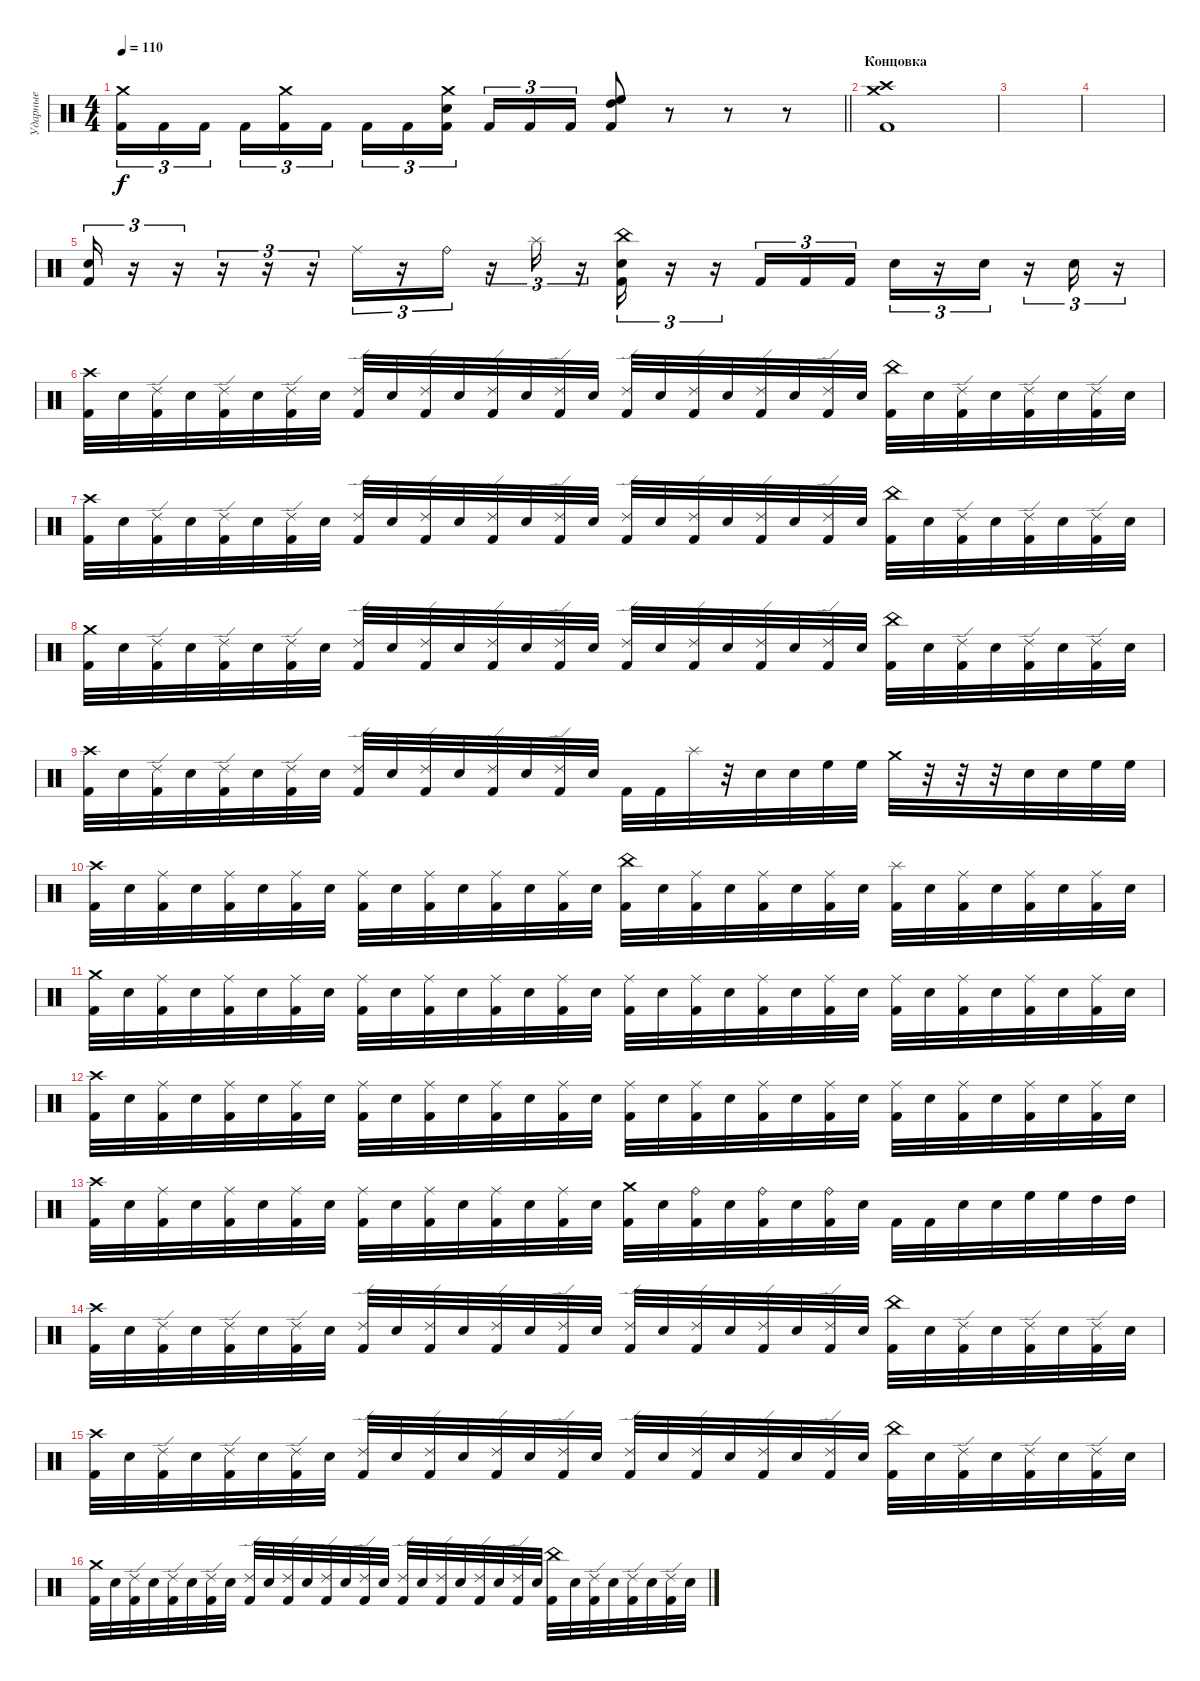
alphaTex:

\track ("Ударные" "Ударные") {instrument percussion}
\staff {score}
\articulation defaults
\ts (4 4)
\tempo 110
\clef neutral
\barLineRight lightlight
\ks c
("Crash medium (hit)" "Kick (hit) 2").16{tu (3 2) dy f} "Kick (hit) 2".16{tu (3 2)} "Kick (hit) 2".16{tu (3 2) beam splitsecondary} "Kick (hit) 2".16{tu (3 2)} ("Crash medium (hit)" "Kick (hit) 2").16{tu (3 2)} "Kick (hit) 2".16{tu (3 2)} "Kick (hit) 2".16{tu (3 2)} "Kick (hit) 2".16{tu (3 2)} ("Crash medium (hit)" "Electric Snare (hit)" "Kick (hit) 2").16{tu (3 2) beam splitsecondary} "Kick (hit) 2".16{tu (3 2)} "Kick (hit) 2".16{tu (3 2)} "Kick (hit) 2".16{tu (3 2)} ("High Floor Tom (hit)" "High Tom (hit)" "Kick (hit) 2").8 r.8 r.8 r.8 |
\section ("" "Концовка")
("Crash medium (hit)" "Crash high (hit)" "Kick (hit) 2").1 |
|
|
("Electric Snare (hit)" "Kick (hit) 2").16{tu (3 2)} r.16{tu (3 2)} r.16{tu (3 2)} r.16{tu (3 2)} r.16{tu (3 2)} r.16{tu (3 2)} "Ride (middle)".16{tu (3 2)} r.16{tu (3 2)} "Ride (bell)".16{tu (3 2)} r.16{tu (3 2)} "Splash (hit)".16{tu (3 2)} r.16{tu (3 2)} ("China (hit)" "Electric Snare (hit)" "Kick (hit) 2").16{tu (3 2)} r.16{tu (3 2)} r.16{tu (3 2)} "Kick (hit) 2".16{tu (3 2)} "Kick (hit) 2".16{tu (3 2)} "Kick (hit) 2".16{tu (3 2)} "Electric Snare (hit)".16{tu (3 2)} r.16{tu (3 2)} "Electric Snare (hit)".16{tu (3 2)} r.16{tu (3 2)} "Electric Snare (hit)".16{tu (3 2)} r.16{tu (3 2)} |
("Crash high (hit)" "Kick (hit) 2").32 "Electric Snare (hit)".32 ("Ride (edge) 2" "Kick (hit) 2").32 "Electric Snare (hit)".32 ("Ride (edge) 2" "Kick (hit) 2").32 "Electric Snare (hit)".32 ("Ride (edge) 2" "Kick (hit) 2").32 "Electric Snare (hit)".32 ("Ride (edge) 2" "Kick (hit) 2").32 "Electric Snare (hit)".32 ("Ride (edge) 2" "Kick (hit) 2").32 "Electric Snare (hit)".32 ("Ride (edge) 2" "Kick (hit) 2").32 "Electric Snare (hit)".32 ("Ride (edge) 2" "Kick (hit) 2").32 "Electric Snare (hit)".32 ("Ride (edge) 2" "Kick (hit) 2").32 "Electric Snare (hit)".32 ("Ride (edge) 2" "Kick (hit) 2").32 "Electric Snare (hit)".32 ("Ride (edge) 2" "Kick (hit) 2").32 "Electric Snare (hit)".32 ("Ride (edge) 2" "Kick (hit) 2").32 "Electric Snare (hit)".32 ("China (hit)" "Kick (hit) 2").32 "Electric Snare (hit)".32 ("Ride (edge) 2" "Kick (hit) 2").32 "Electric Snare (hit)".32 ("Ride (edge) 2" "Kick (hit) 2").32 "Electric Snare (hit)".32 ("Ride (edge) 2" "Kick (hit) 2").32 "Electric Snare (hit)".32 |
("Crash high (hit)" "Kick (hit) 2").32 "Electric Snare (hit)".32 ("Ride (edge) 2" "Kick (hit) 2").32 "Electric Snare (hit)".32 ("Ride (edge) 2" "Kick (hit) 2").32 "Electric Snare (hit)".32 ("Ride (edge) 2" "Kick (hit) 2").32 "Electric Snare (hit)".32 ("Ride (edge) 2" "Kick (hit) 2").32 "Electric Snare (hit)".32 ("Ride (edge) 2" "Kick (hit) 2").32 "Electric Snare (hit)".32 ("Ride (edge) 2" "Kick (hit) 2").32 "Electric Snare (hit)".32 ("Ride (edge) 2" "Kick (hit) 2").32 "Electric Snare (hit)".32 ("Ride (edge) 2" "Kick (hit) 2").32 "Electric Snare (hit)".32 ("Ride (edge) 2" "Kick (hit) 2").32 "Electric Snare (hit)".32 ("Ride (edge) 2" "Kick (hit) 2").32 "Electric Snare (hit)".32 ("Ride (edge) 2" "Kick (hit) 2").32 "Electric Snare (hit)".32 ("China (hit)" "Kick (hit) 2").32 "Electric Snare (hit)".32 ("Ride (edge) 2" "Kick (hit) 2").32 "Electric Snare (hit)".32 ("Ride (edge) 2" "Kick (hit) 2").32 "Electric Snare (hit)".32 ("Ride (edge) 2" "Kick (hit) 2").32 "Electric Snare (hit)".32 |
("Crash medium (hit)" "Kick (hit) 2").32 "Electric Snare (hit)".32 ("Ride (edge) 2" "Kick (hit) 2").32 "Electric Snare (hit)".32 ("Ride (edge) 2" "Kick (hit) 2").32 "Electric Snare (hit)".32 ("Ride (edge) 2" "Kick (hit) 2").32 "Electric Snare (hit)".32 ("Ride (edge) 2" "Kick (hit) 2").32 "Electric Snare (hit)".32 ("Ride (edge) 2" "Kick (hit) 2").32 "Electric Snare (hit)".32 ("Ride (edge) 2" "Kick (hit) 2").32 "Electric Snare (hit)".32 ("Ride (edge) 2" "Kick (hit) 2").32 "Electric Snare (hit)".32 ("Ride (edge) 2" "Kick (hit) 2").32 "Electric Snare (hit)".32 ("Ride (edge) 2" "Kick (hit) 2").32 "Electric Snare (hit)".32 ("Ride (edge) 2" "Kick (hit) 2").32 "Electric Snare (hit)".32 ("Ride (edge) 2" "Kick (hit) 2").32 "Electric Snare (hit)".32 ("China (hit)" "Kick (hit) 2").32 "Electric Snare (hit)".32 ("Ride (edge) 2" "Kick (hit) 2").32 "Electric Snare (hit)".32 ("Ride (edge) 2" "Kick (hit) 2").32 "Electric Snare (hit)".32 ("Ride (edge) 2" "Kick (hit) 2").32 "Electric Snare (hit)".32 |
("Crash high (hit)" "Kick (hit) 2").32 "Electric Snare (hit)".32 ("Ride (edge) 2" "Kick (hit) 2").32 "Electric Snare (hit)".32 ("Ride (edge) 2" "Kick (hit) 2").32 "Electric Snare (hit)".32 ("Ride (edge) 2" "Kick (hit) 2").32 "Electric Snare (hit)".32 ("Ride (edge) 2" "Kick (hit) 2").32 "Electric Snare (hit)".32 ("Ride (edge) 2" "Kick (hit) 2").32 "Electric Snare (hit)".32 ("Ride (edge) 2" "Kick (hit) 2").32 "Electric Snare (hit)".32 ("Ride (edge) 2" "Kick (hit) 2").32 "Electric Snare (hit)".32 "Kick (hit) 2".32 "Kick (hit) 2".32 "Splash (hit)".32 r.32 "Electric Snare (hit)".32 "Electric Snare (hit)".32 "High Floor Tom (hit)".32 "High Floor Tom (hit)".32 "Crash medium (hit)".32 r.32 r.32 r.32 "Electric Snare (hit)".32 "Electric Snare (hit)".32 "High Floor Tom (hit)".32 "High Floor Tom (hit)".32 |
("Crash high (hit)" "Kick (hit) 2").32 "Electric Snare (hit)".32 ("Ride (middle)" "Kick (hit) 2").32 "Electric Snare (hit)".32 ("Ride (middle)" "Kick (hit) 2").32 "Electric Snare (hit)".32 ("Ride (middle)" "Kick (hit) 2").32 "Electric Snare (hit)".32 ("Ride (middle)" "Kick (hit) 2").32 "Electric Snare (hit)".32 ("Ride (middle)" "Kick (hit) 2").32 "Electric Snare (hit)".32 ("Ride (middle)" "Kick (hit) 2").32 "Electric Snare (hit)".32 ("Ride (middle)" "Kick (hit) 2").32 "Electric Snare (hit)".32 ("China (hit)" "Kick (hit) 2").32 "Electric Snare (hit)".32 ("Ride (middle)" "Kick (hit) 2").32 "Electric Snare (hit)".32 ("Ride (middle)" "Kick (hit) 2").32 "Electric Snare (hit)".32 ("Ride (middle)" "Kick (hit) 2").32 "Electric Snare (hit)".32 ("Splash (hit)" "Kick (hit) 2").32 "Electric Snare (hit)".32 ("Ride (middle)" "Kick (hit) 2").32 "Electric Snare (hit)".32 ("Ride (middle)" "Kick (hit) 2").32 "Electric Snare (hit)".32 ("Ride (middle)" "Kick (hit) 2").32 "Electric Snare (hit)".32 |
("Crash medium (hit)" "Kick (hit) 2").32 "Electric Snare (hit)".32 ("Ride (middle)" "Kick (hit) 2").32 "Electric Snare (hit)".32 ("Ride (middle)" "Kick (hit) 2").32 "Electric Snare (hit)".32 ("Ride (middle)" "Kick (hit) 2").32 "Electric Snare (hit)".32 ("Ride (middle)" "Kick (hit) 2").32 "Electric Snare (hit)".32 ("Ride (middle)" "Kick (hit) 2").32 "Electric Snare (hit)".32 ("Ride (middle)" "Kick (hit) 2").32 "Electric Snare (hit)".32 ("Ride (middle)" "Kick (hit) 2").32 "Electric Snare (hit)".32 ("Ride (middle)" "Kick (hit) 2").32 "Electric Snare (hit)".32 ("Ride (middle)" "Kick (hit) 2").32 "Electric Snare (hit)".32 ("Ride (middle)" "Kick (hit) 2").32 "Electric Snare (hit)".32 ("Ride (middle)" "Kick (hit) 2").32 "Electric Snare (hit)".32 ("Ride (middle)" "Kick (hit) 2").32 "Electric Snare (hit)".32 ("Ride (middle)" "Kick (hit) 2").32 "Electric Snare (hit)".32 ("Ride (middle)" "Kick (hit) 2").32 "Electric Snare (hit)".32 ("Ride (middle)" "Kick (hit) 2").32 "Electric Snare (hit)".32 |
("Crash high (hit)" "Kick (hit) 2").32 "Electric Snare (hit)".32 ("Ride (middle)" "Kick (hit) 2").32 "Electric Snare (hit)".32 ("Ride (middle)" "Kick (hit) 2").32 "Electric Snare (hit)".32 ("Ride (middle)" "Kick (hit) 2").32 "Electric Snare (hit)".32 ("Ride (middle)" "Kick (hit) 2").32 "Electric Snare (hit)".32 ("Ride (middle)" "Kick (hit) 2").32 "Electric Snare (hit)".32 ("Ride (middle)" "Kick (hit) 2").32 "Electric Snare (hit)".32 ("Ride (middle)" "Kick (hit) 2").32 "Electric Snare (hit)".32 ("Ride (middle)" "Kick (hit) 2").32 "Electric Snare (hit)".32 ("Ride (middle)" "Kick (hit) 2").32 "Electric Snare (hit)".32 ("Ride (middle)" "Kick (hit) 2").32 "Electric Snare (hit)".32 ("Ride (middle)" "Kick (hit) 2").32 "Electric Snare (hit)".32 ("Ride (middle)" "Kick (hit) 2").32 "Electric Snare (hit)".32 ("Ride (middle)" "Kick (hit) 2").32 "Electric Snare (hit)".32 ("Ride (middle)" "Kick (hit) 2").32 "Electric Snare (hit)".32 ("Ride (middle)" "Kick (hit) 2").32 "Electric Snare (hit)".32 |
("Crash high (hit)" "Kick (hit) 2").32 "Electric Snare (hit)".32 ("Ride (middle)" "Kick (hit) 2").32 "Electric Snare (hit)".32 ("Ride (middle)" "Kick (hit) 2").32 "Electric Snare (hit)".32 ("Ride (middle)" "Kick (hit) 2").32 "Electric Snare (hit)".32 ("Ride (middle)" "Kick (hit) 2").32 "Electric Snare (hit)".32 ("Ride (middle)" "Kick (hit) 2").32 "Electric Snare (hit)".32 ("Ride (middle)" "Kick (hit) 2").32 "Electric Snare (hit)".32 ("Ride (middle)" "Kick (hit) 2").32 "Electric Snare (hit)".32 ("Crash medium (hit)" "Kick (hit) 2").32 "Electric Snare (hit)".32 ("Ride (bell)" "Kick (hit) 2").32 "Electric Snare (hit)".32 ("Ride (bell)" "Kick (hit) 2").32 "Electric Snare (hit)".32 ("Ride (bell)" "Kick (hit) 2").32 "Electric Snare (hit)".32 "Kick (hit) 2".32 "Kick (hit) 2".32 "Electric Snare (hit)".32 "Electric Snare (hit)".32 "High Floor Tom (hit)".32 "High Floor Tom (hit)".32 "High Tom (hit)".32 "High Tom (hit)".32 |
("Crash high (hit)" "Kick (hit) 2").32 "Electric Snare (hit)".32 ("Ride (edge) 2" "Kick (hit) 2").32 "Electric Snare (hit)".32 ("Ride (edge) 2" "Kick (hit) 2").32 "Electric Snare (hit)".32 ("Ride (edge) 2" "Kick (hit) 2").32 "Electric Snare (hit)".32 ("Ride (edge) 2" "Kick (hit) 2").32 "Electric Snare (hit)".32 ("Ride (edge) 2" "Kick (hit) 2").32 "Electric Snare (hit)".32 ("Ride (edge) 2" "Kick (hit) 2").32 "Electric Snare (hit)".32 ("Ride (edge) 2" "Kick (hit) 2").32 "Electric Snare (hit)".32 ("Ride (edge) 2" "Kick (hit) 2").32 "Electric Snare (hit)".32 ("Ride (edge) 2" "Kick (hit) 2").32 "Electric Snare (hit)".32 ("Ride (edge) 2" "Kick (hit) 2").32 "Electric Snare (hit)".32 ("Ride (edge) 2" "Kick (hit) 2").32 "Electric Snare (hit)".32 ("China (hit)" "Kick (hit) 2").32 "Electric Snare (hit)".32 ("Ride (edge) 2" "Kick (hit) 2").32 "Electric Snare (hit)".32 ("Ride (edge) 2" "Kick (hit) 2").32 "Electric Snare (hit)".32 ("Ride (edge) 2" "Kick (hit) 2").32 "Electric Snare (hit)".32 |
("Crash high (hit)" "Kick (hit) 2").32 "Electric Snare (hit)".32 ("Ride (edge) 2" "Kick (hit) 2").32 "Electric Snare (hit)".32 ("Ride (edge) 2" "Kick (hit) 2").32 "Electric Snare (hit)".32 ("Ride (edge) 2" "Kick (hit) 2").32 "Electric Snare (hit)".32 ("Ride (edge) 2" "Kick (hit) 2").32 "Electric Snare (hit)".32 ("Ride (edge) 2" "Kick (hit) 2").32 "Electric Snare (hit)".32 ("Ride (edge) 2" "Kick (hit) 2").32 "Electric Snare (hit)".32 ("Ride (edge) 2" "Kick (hit) 2").32 "Electric Snare (hit)".32 ("Ride (edge) 2" "Kick (hit) 2").32 "Electric Snare (hit)".32 ("Ride (edge) 2" "Kick (hit) 2").32 "Electric Snare (hit)".32 ("Ride (edge) 2" "Kick (hit) 2").32 "Electric Snare (hit)".32 ("Ride (edge) 2" "Kick (hit) 2").32 "Electric Snare (hit)".32 ("China (hit)" "Kick (hit) 2").32 "Electric Snare (hit)".32 ("Ride (edge) 2" "Kick (hit) 2").32 "Electric Snare (hit)".32 ("Ride (edge) 2" "Kick (hit) 2").32 "Electric Snare (hit)".32 ("Ride (edge) 2" "Kick (hit) 2").32 "Electric Snare (hit)".32 |
("Crash medium (hit)" "Kick (hit) 2").32 "Electric Snare (hit)".32 ("Ride (edge) 2" "Kick (hit) 2").32 "Electric Snare (hit)".32 ("Ride (edge) 2" "Kick (hit) 2").32 "Electric Snare (hit)".32 ("Ride (edge) 2" "Kick (hit) 2").32 "Electric Snare (hit)".32 ("Ride (edge) 2" "Kick (hit) 2").32 "Electric Snare (hit)".32 ("Ride (edge) 2" "Kick (hit) 2").32 "Electric Snare (hit)".32 ("Ride (edge) 2" "Kick (hit) 2").32 "Electric Snare (hit)".32 ("Ride (edge) 2" "Kick (hit) 2").32 "Electric Snare (hit)".32 ("Ride (edge) 2" "Kick (hit) 2").32 "Electric Snare (hit)".32 ("Ride (edge) 2" "Kick (hit) 2").32 "Electric Snare (hit)".32 ("Ride (edge) 2" "Kick (hit) 2").32 "Electric Snare (hit)".32 ("Ride (edge) 2" "Kick (hit) 2").32 "Electric Snare (hit)".32 ("China (hit)" "Kick (hit) 2").32 "Electric Snare (hit)".32 ("Ride (edge) 2" "Kick (hit) 2").32 "Electric Snare (hit)".32 ("Ride (edge) 2" "Kick (hit) 2").32 "Electric Snare (hit)".32 ("Ride (edge) 2" "Kick (hit) 2").32 "Electric Snare (hit)".32
